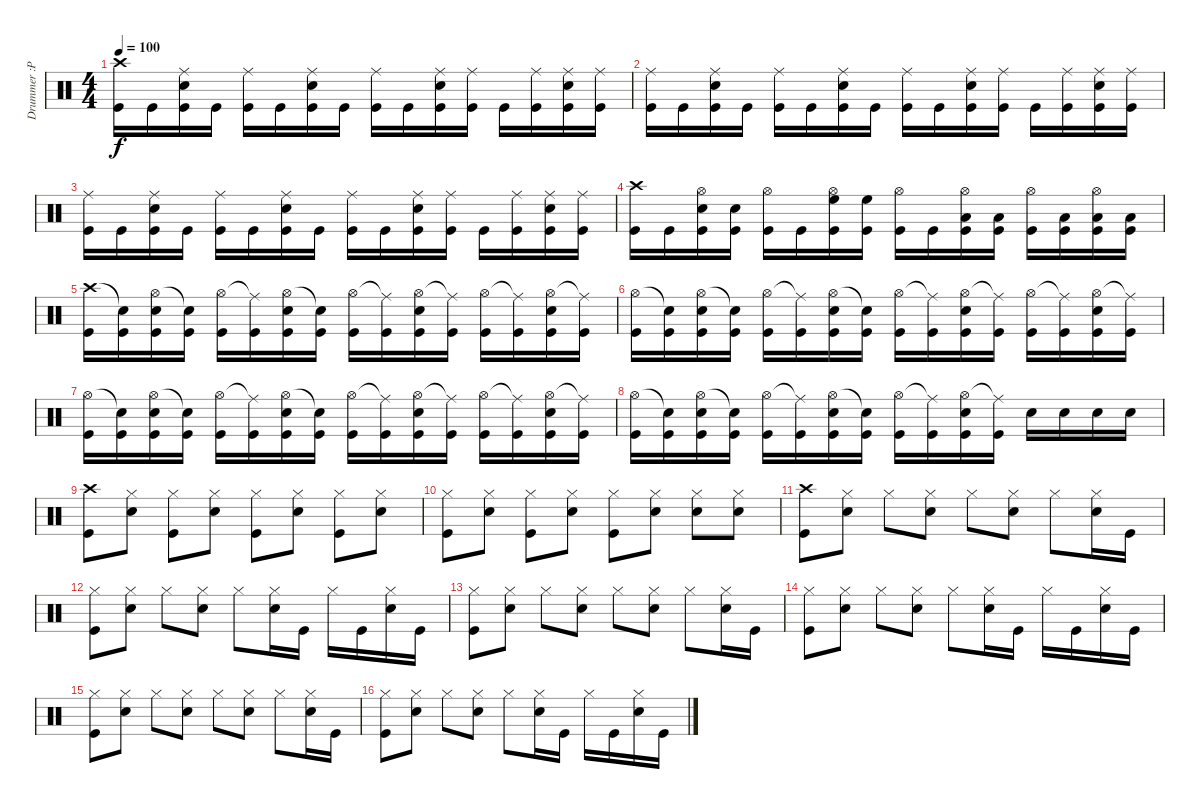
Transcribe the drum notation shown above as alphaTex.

\track ("Drummer :P" "Drummer :P") {instrument percussion}
\staff {score}
\articulation defaults
\ts (4 4)
\tempo 100
\clef neutral
\ks c
("Crash high (hit)" "Kick (hit)").16{dy f} "Kick (hit)".16 ("Ride (middle)" "Electric Snare (hit)" "Kick (hit)").16 "Kick (hit)".16 ("Ride (middle)" "Kick (hit)").16 "Kick (hit)".16 ("Ride (middle)" "Electric Snare (hit)" "Kick (hit)").16 "Kick (hit)".16 ("Ride (middle)" "Kick (hit)").16 "Kick (hit)".16 ("Ride (middle)" "Electric Snare (hit)" "Kick (hit)").16 ("Ride (middle)" "Kick (hit)").16 "Kick (hit)".16 ("Ride (middle)" "Kick (hit)").16 ("Ride (middle)" "Electric Snare (hit)" "Kick (hit)").16 ("Ride (middle)" "Kick (hit)").16 |
("Ride (middle)" "Kick (hit)").16 "Kick (hit)".16 ("Ride (middle)" "Electric Snare (hit)" "Kick (hit)").16 "Kick (hit)".16 ("Ride (middle)" "Kick (hit)").16 "Kick (hit)".16 ("Ride (middle)" "Electric Snare (hit)" "Kick (hit)").16 "Kick (hit)".16 ("Ride (middle)" "Kick (hit)").16 "Kick (hit)".16 ("Ride (middle)" "Electric Snare (hit)" "Kick (hit)").16 ("Ride (middle)" "Kick (hit)").16 "Kick (hit)".16 ("Ride (middle)" "Kick (hit)").16 ("Ride (middle)" "Electric Snare (hit)" "Kick (hit)").16 ("Ride (middle)" "Kick (hit)").16 |
("Ride (middle)" "Kick (hit)").16 "Kick (hit)".16 ("Ride (middle)" "Electric Snare (hit)" "Kick (hit)").16 "Kick (hit)".16 ("Ride (middle)" "Kick (hit)").16 "Kick (hit)".16 ("Ride (middle)" "Electric Snare (hit)" "Kick (hit)").16 "Kick (hit)".16 ("Ride (middle)" "Kick (hit)").16 "Kick (hit)".16 ("Ride (middle)" "Electric Snare (hit)" "Kick (hit)").16 ("Ride (middle)" "Kick (hit)").16 "Kick (hit)".16 ("Ride (middle)" "Kick (hit)").16 ("Ride (middle)" "Electric Snare (hit)" "Kick (hit)").16 ("Ride (middle)" "Kick (hit)").16 |
("Crash high (hit)" "Kick (hit)").16 "Kick (hit)".16 ("Hi-Hat (open)" "Electric Snare (hit)" "Kick (hit)").16 ("Electric Snare (hit)" "Kick (hit)").16 ("Hi-Hat (open)" "Kick (hit)").16 "Kick (hit)".16 ("High Floor Tom (hit)" "Hi-Hat (open)" "Kick (hit)").16 ("High Floor Tom (hit)" "Kick (hit)").16 ("Hi-Hat (open)" "Kick (hit)").16 "Kick (hit)".16 ("Low Tom (hit)" "Hi-Hat (open)" "Kick (hit)").16 ("Low Tom (hit)" "Kick (hit)").16 ("Hi-Hat (open)" "Kick (hit)").16 ("Low Floor Tom (hit)" "Kick (hit)").16 ("Low Floor Tom (hit)" "Hi-Hat (open)" "Kick (hit)").16 ("Low Floor Tom (hit)" "Kick (hit)").16 |
("Crash high (hit)" "Kick (hit)").16 ("Snare (hit)"{t} "Kick (hit)").16 ("Hi-Hat (open)" "Electric Snare (hit)" "Kick (hit)").16 ("Snare (hit)"{t} "Kick (hit)").16 ("Hi-Hat (open)" "Kick (hit)").16 ("Ride (middle)"{t} "Kick (hit)").16 ("Hi-Hat (open)" "Electric Snare (hit)" "Kick (hit)").16 ("Snare (hit)"{t} "Kick (hit)").16 ("Hi-Hat (open)" "Kick (hit)").16 ("Ride (middle)"{t} "Kick (hit)").16 ("Hi-Hat (open)" "Electric Snare (hit)" "Kick (hit)").16 ("Ride (middle)"{t} "Kick (hit)").16 ("Hi-Hat (open)" "Kick (hit)").16 ("Ride (middle)"{t} "Kick (hit)").16 ("Hi-Hat (open)" "Electric Snare (hit)" "Kick (hit)").16 ("Ride (middle)"{t} "Kick (hit)").16 |
("Hi-Hat (open)" "Kick (hit)").16 ("Snare (hit)"{t} "Kick (hit)").16 ("Hi-Hat (open)" "Electric Snare (hit)" "Kick (hit)").16 ("Snare (hit)"{t} "Kick (hit)").16 ("Hi-Hat (open)" "Kick (hit)").16 ("Ride (middle)"{t} "Kick (hit)").16 ("Hi-Hat (open)" "Electric Snare (hit)" "Kick (hit)").16 ("Snare (hit)"{t} "Kick (hit)").16 ("Hi-Hat (open)" "Kick (hit)").16 ("Ride (middle)"{t} "Kick (hit)").16 ("Hi-Hat (open)" "Electric Snare (hit)" "Kick (hit)").16 ("Ride (middle)"{t} "Kick (hit)").16 ("Hi-Hat (open)" "Kick (hit)").16 ("Ride (middle)"{t} "Kick (hit)").16 ("Hi-Hat (open)" "Electric Snare (hit)" "Kick (hit)").16 ("Ride (middle)"{t} "Kick (hit)").16 |
("Hi-Hat (open)" "Kick (hit)").16 ("Snare (hit)"{t} "Kick (hit)").16 ("Hi-Hat (open)" "Electric Snare (hit)" "Kick (hit)").16 ("Snare (hit)"{t} "Kick (hit)").16 ("Hi-Hat (open)" "Kick (hit)").16 ("Ride (middle)"{t} "Kick (hit)").16 ("Hi-Hat (open)" "Electric Snare (hit)" "Kick (hit)").16 ("Snare (hit)"{t} "Kick (hit)").16 ("Hi-Hat (open)" "Kick (hit)").16 ("Ride (middle)"{t} "Kick (hit)").16 ("Hi-Hat (open)" "Electric Snare (hit)" "Kick (hit)").16 ("Ride (middle)"{t} "Kick (hit)").16 ("Hi-Hat (open)" "Kick (hit)").16 ("Ride (middle)"{t} "Kick (hit)").16 ("Hi-Hat (open)" "Electric Snare (hit)" "Kick (hit)").16 ("Ride (middle)"{t} "Kick (hit)").16 |
("Hi-Hat (open)" "Kick (hit)").16 ("Snare (hit)"{t} "Kick (hit)").16 ("Hi-Hat (open)" "Electric Snare (hit)" "Kick (hit)").16 ("Snare (hit)"{t} "Kick (hit)").16 ("Hi-Hat (open)" "Kick (hit)").16 ("Ride (middle)"{t} "Kick (hit)").16 ("Hi-Hat (open)" "Electric Snare (hit)" "Kick (hit)").16 ("Snare (hit)"{t} "Kick (hit)").16 ("Hi-Hat (open)" "Kick (hit)").16 ("Ride (middle)"{t} "Kick (hit)").16 ("Hi-Hat (open)" "Electric Snare (hit)" "Kick (hit)").16 ("Ride (middle)"{t} "Kick (hit)").16 "Electric Snare (hit)".16 "Electric Snare (hit)".16 "Electric Snare (hit)".16 "Electric Snare (hit)".16 |
("Crash high (hit)" "Kick (hit)").8 ("Hi-Hat (closed)" "Electric Snare (hit)").8 ("Hi-Hat (closed)" "Kick (hit)").8 ("Hi-Hat (closed)" "Electric Snare (hit)").8 ("Hi-Hat (closed)" "Kick (hit)").8 ("Hi-Hat (closed)" "Electric Snare (hit)").8 ("Hi-Hat (closed)" "Kick (hit)").8 ("Hi-Hat (closed)" "Electric Snare (hit)").8 |
("Hi-Hat (closed)" "Kick (hit)").8 ("Hi-Hat (closed)" "Electric Snare (hit)").8 ("Hi-Hat (closed)" "Kick (hit)").8 ("Hi-Hat (closed)" "Electric Snare (hit)").8 ("Hi-Hat (closed)" "Kick (hit)").8 ("Hi-Hat (closed)" "Electric Snare (hit)").8 ("Hi-Hat (closed)" "Electric Snare (hit)").8 ("Hi-Hat (closed)" "Electric Snare (hit)").8 |
("Crash high (hit)" "Kick (hit)").8 ("Hi-Hat (closed)" "Electric Snare (hit)").8 "Hi-Hat (closed)".8 ("Hi-Hat (closed)" "Electric Snare (hit)").8 "Hi-Hat (closed)".8 ("Hi-Hat (closed)" "Electric Snare (hit)").8 "Hi-Hat (closed)".8 ("Hi-Hat (closed)" "Electric Snare (hit)").16 "Kick (hit)".16 |
("Hi-Hat (closed)" "Kick (hit)").8 ("Hi-Hat (closed)" "Electric Snare (hit)").8 "Hi-Hat (closed)".8 ("Hi-Hat (closed)" "Electric Snare (hit)").8 "Hi-Hat (closed)".8 ("Hi-Hat (closed)" "Electric Snare (hit)").16 "Kick (hit)".16 "Hi-Hat (closed)".16 "Kick (hit)".16 ("Hi-Hat (closed)" "Electric Snare (hit)").16 "Kick (hit)".16 |
("Hi-Hat (closed)" "Kick (hit)").8 ("Hi-Hat (closed)" "Electric Snare (hit)").8 "Hi-Hat (closed)".8 ("Hi-Hat (closed)" "Electric Snare (hit)").8 "Hi-Hat (closed)".8 ("Hi-Hat (closed)" "Electric Snare (hit)").8 "Hi-Hat (closed)".8 ("Hi-Hat (closed)" "Electric Snare (hit)").16 "Kick (hit)".16 |
("Hi-Hat (closed)" "Kick (hit)").8 ("Hi-Hat (closed)" "Electric Snare (hit)").8 "Hi-Hat (closed)".8 ("Hi-Hat (closed)" "Electric Snare (hit)").8 "Hi-Hat (closed)".8 ("Hi-Hat (closed)" "Electric Snare (hit)").16 "Kick (hit)".16 "Hi-Hat (closed)".16 "Kick (hit)".16 ("Hi-Hat (closed)" "Electric Snare (hit)").16 "Kick (hit)".16 |
("Hi-Hat (closed)" "Kick (hit)").8 ("Hi-Hat (closed)" "Electric Snare (hit)").8 "Hi-Hat (closed)".8 ("Hi-Hat (closed)" "Electric Snare (hit)").8 "Hi-Hat (closed)".8 ("Hi-Hat (closed)" "Electric Snare (hit)").8 "Hi-Hat (closed)".8 ("Hi-Hat (closed)" "Electric Snare (hit)").16 "Kick (hit)".16 |
("Hi-Hat (closed)" "Kick (hit)").8 ("Hi-Hat (closed)" "Electric Snare (hit)").8 "Hi-Hat (closed)".8 ("Hi-Hat (closed)" "Electric Snare (hit)").8 "Hi-Hat (closed)".8 ("Hi-Hat (closed)" "Electric Snare (hit)").16 "Kick (hit)".16 "Hi-Hat (closed)".16 "Kick (hit)".16 ("Hi-Hat (closed)" "Electric Snare (hit)").16 "Kick (hit)".16
